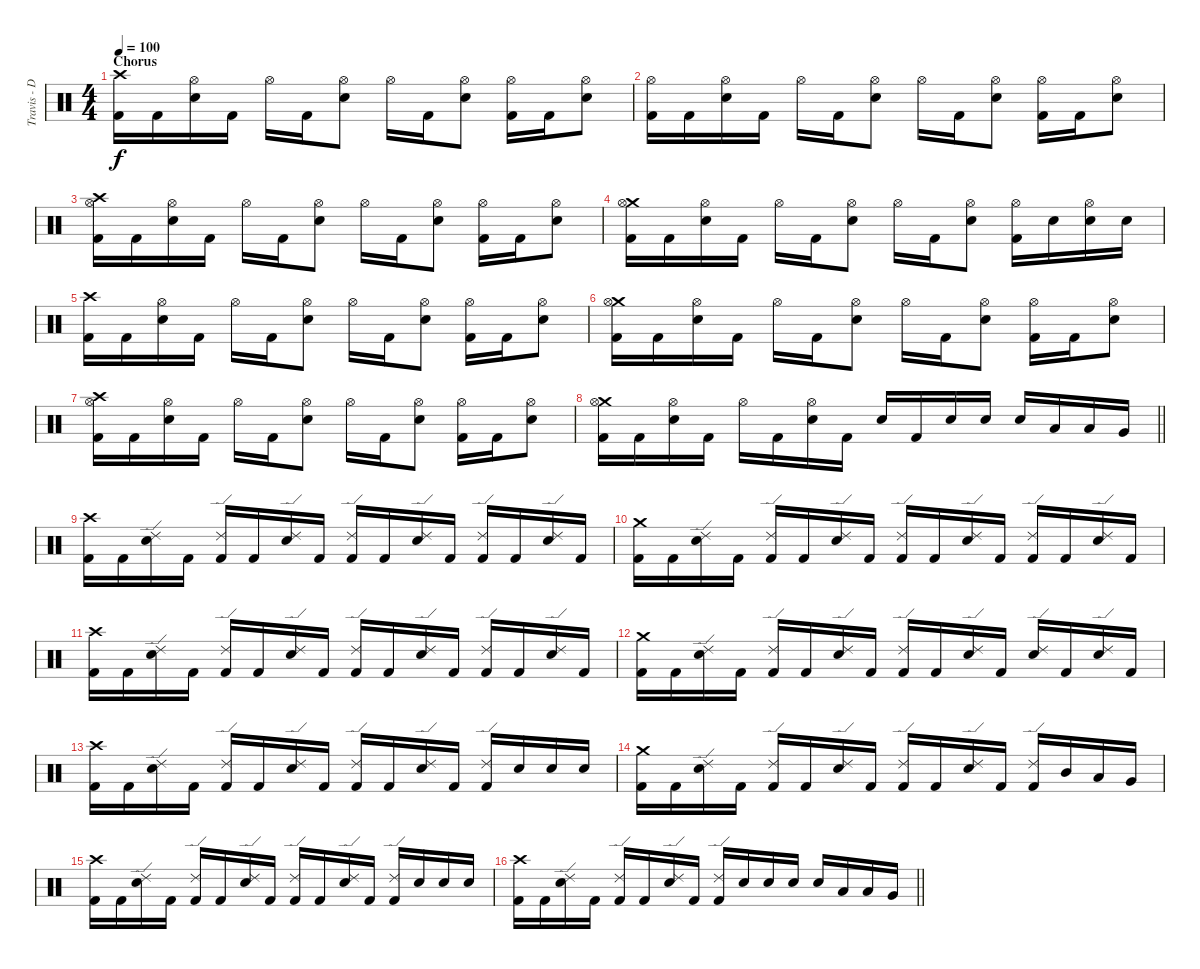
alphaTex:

\track ("Travis - Drums" "Travis - D") {instrument percussion}
\staff {score}
\articulation defaults
\ts (4 4)
\section ("" "Chorus")
\tempo 100
\clef neutral
\ks c
("Crash high (hit)" "Kick (hit) 2").16{dy f} "Kick (hit) 2".16 ("Hi-Hat (open)" "Electric Snare (hit)").16 "Kick (hit) 2".16 "Hi-Hat (open)".16 "Kick (hit) 2".16 ("Hi-Hat (open)" "Electric Snare (hit)").8 "Hi-Hat (open)".16 "Kick (hit) 2".16 ("Hi-Hat (open)" "Electric Snare (hit)").8 ("Hi-Hat (open)" "Kick (hit) 2").16 "Kick (hit) 2".16 ("Hi-Hat (open)" "Electric Snare (hit)").8 |
("Hi-Hat (open)" "Kick (hit) 2").16 "Kick (hit) 2".16 ("Hi-Hat (open)" "Electric Snare (hit)").16 "Kick (hit) 2".16 "Hi-Hat (open)".16 "Kick (hit) 2".16 ("Hi-Hat (open)" "Electric Snare (hit)").8 "Hi-Hat (open)".16 "Kick (hit) 2".16 ("Hi-Hat (open)" "Electric Snare (hit)").8 ("Hi-Hat (open)" "Kick (hit) 2").16 "Kick (hit) 2".16 ("Hi-Hat (open)" "Electric Snare (hit)").8 |
("Crash high (hit)" "Hi-Hat (open)" "Kick (hit) 2").16 "Kick (hit) 2".16 ("Hi-Hat (open)" "Electric Snare (hit)").16 "Kick (hit) 2".16 "Hi-Hat (open)".16 "Kick (hit) 2".16 ("Hi-Hat (open)" "Electric Snare (hit)").8 "Hi-Hat (open)".16 "Kick (hit) 2".16 ("Hi-Hat (open)" "Electric Snare (hit)").8 ("Hi-Hat (open)" "Kick (hit) 2").16 "Kick (hit) 2".16 ("Hi-Hat (open)" "Electric Snare (hit)").8 |
("Crash medium (hit)" "Hi-Hat (open)" "Kick (hit) 2").16 "Kick (hit) 2".16 ("Hi-Hat (open)" "Electric Snare (hit)").16 "Kick (hit) 2".16 "Hi-Hat (open)".16 "Kick (hit) 2".16 ("Hi-Hat (open)" "Electric Snare (hit)").8 "Hi-Hat (open)".16 "Kick (hit) 2".16 ("Hi-Hat (open)" "Electric Snare (hit)").8 ("Hi-Hat (open)" "Kick (hit) 2").16 "Electric Snare (hit)".16 ("Hi-Hat (open)" "Electric Snare (hit)").16 "Electric Snare (hit)".16 |
("Crash high (hit)" "Kick (hit) 2").16 "Kick (hit) 2".16 ("Hi-Hat (open)" "Electric Snare (hit)").16 "Kick (hit) 2".16 "Hi-Hat (open)".16 "Kick (hit) 2".16 ("Hi-Hat (open)" "Electric Snare (hit)").8 "Hi-Hat (open)".16 "Kick (hit) 2".16 ("Hi-Hat (open)" "Electric Snare (hit)").8 ("Hi-Hat (open)" "Kick (hit) 2").16 "Kick (hit) 2".16 ("Hi-Hat (open)" "Electric Snare (hit)").8 |
("Crash medium (hit)" "Hi-Hat (open)" "Kick (hit) 2").16 "Kick (hit) 2".16 ("Hi-Hat (open)" "Electric Snare (hit)").16 "Kick (hit) 2".16 "Hi-Hat (open)".16 "Kick (hit) 2".16 ("Hi-Hat (open)" "Electric Snare (hit)").8 "Hi-Hat (open)".16 "Kick (hit) 2".16 ("Hi-Hat (open)" "Electric Snare (hit)").8 ("Hi-Hat (open)" "Kick (hit) 2").16 "Kick (hit) 2".16 ("Hi-Hat (open)" "Electric Snare (hit)").8 |
("Crash high (hit)" "Hi-Hat (open)" "Kick (hit) 2").16 "Kick (hit) 2".16 ("Hi-Hat (open)" "Electric Snare (hit)").16 "Kick (hit) 2".16 "Hi-Hat (open)".16 "Kick (hit) 2".16 ("Hi-Hat (open)" "Electric Snare (hit)").8 "Hi-Hat (open)".16 "Kick (hit) 2".16 ("Hi-Hat (open)" "Electric Snare (hit)").8 ("Hi-Hat (open)" "Kick (hit) 2").16 "Kick (hit) 2".16 ("Hi-Hat (open)" "Electric Snare (hit)").8 |
\barLineRight lightlight
("Crash medium (hit)" "Hi-Hat (open)" "Kick (hit) 2").16 "Kick (hit) 2".16 ("Hi-Hat (open)" "Electric Snare (hit)").16 "Kick (hit) 2".16 "Hi-Hat (open)".16 "Kick (hit) 2".16 ("Hi-Hat (open)" "Electric Snare (hit)").16 "Kick (hit) 2".16 "Electric Snare (hit)".16 "Kick (hit) 2".16 "Electric Snare (hit)".16 "Electric Snare (hit)".16 "Electric Snare (hit)".16 "Low Tom (hit)".16 "Low Tom (hit)".16 "Very Low Tom (hit)".16 |
("Crash high (hit)" "Kick (hit) 2").16 "Kick (hit) 2".16 ("Ride (edge) 2" "Electric Snare (hit)").16 "Kick (hit) 2".16 ("Ride (edge) 2" "Kick (hit) 2").16 "Kick (hit) 2".16 ("Ride (edge) 2" "Electric Snare (hit)").16 "Kick (hit) 2".16 ("Ride (edge) 2" "Kick (hit) 2").16 "Kick (hit) 2".16 ("Ride (edge) 2" "Electric Snare (hit)").16 "Kick (hit) 2".16 ("Ride (edge) 2" "Kick (hit) 2").16 "Kick (hit) 2".16 ("Ride (edge) 2" "Electric Snare (hit)").16 "Kick (hit) 2".16 |
("Crash medium (hit)" "Kick (hit) 2").16 "Kick (hit) 2".16 ("Ride (edge) 2" "Electric Snare (hit)").16 "Kick (hit) 2".16 ("Ride (edge) 2" "Kick (hit) 2").16 "Kick (hit) 2".16 ("Ride (edge) 2" "Electric Snare (hit)").16 "Kick (hit) 2".16 ("Ride (edge) 2" "Kick (hit) 2").16 "Kick (hit) 2".16 ("Ride (edge) 2" "Electric Snare (hit)").16 "Kick (hit) 2".16 ("Ride (edge) 2" "Kick (hit) 2").16 "Kick (hit) 2".16 ("Ride (edge) 2" "Electric Snare (hit)").16 "Kick (hit) 2".16 |
("Crash high (hit)" "Kick (hit) 2").16 "Kick (hit) 2".16 ("Ride (edge) 2" "Electric Snare (hit)").16 "Kick (hit) 2".16 ("Ride (edge) 2" "Kick (hit) 2").16 "Kick (hit) 2".16 ("Ride (edge) 2" "Electric Snare (hit)").16 "Kick (hit) 2".16 ("Ride (edge) 2" "Kick (hit) 2").16 "Kick (hit) 2".16 ("Ride (edge) 2" "Electric Snare (hit)").16 "Kick (hit) 2".16 ("Ride (edge) 2" "Kick (hit) 2").16 "Kick (hit) 2".16 ("Ride (edge) 2" "Electric Snare (hit)").16 "Kick (hit) 2".16 |
("Crash medium (hit)" "Kick (hit) 2").16 "Kick (hit) 2".16 ("Ride (edge) 2" "Electric Snare (hit)").16 "Kick (hit) 2".16 ("Ride (edge) 2" "Kick (hit) 2").16 "Kick (hit) 2".16 ("Ride (edge) 2" "Electric Snare (hit)").16 "Kick (hit) 2".16 ("Ride (edge) 2" "Kick (hit) 2").16 "Kick (hit) 2".16 ("Ride (edge) 2" "Electric Snare (hit)").16 "Kick (hit) 2".16 ("Ride (edge) 2" "Electric Snare (hit)").16 "Kick (hit) 2".16 ("Ride (edge) 2" "Electric Snare (hit)").16 "Kick (hit) 2".16 |
("Crash high (hit)" "Kick (hit) 2").16 "Kick (hit) 2".16 ("Ride (edge) 2" "Electric Snare (hit)").16 "Kick (hit) 2".16 ("Ride (edge) 2" "Kick (hit) 2").16 "Kick (hit) 2".16 ("Ride (edge) 2" "Electric Snare (hit)").16 "Kick (hit) 2".16 ("Ride (edge) 2" "Kick (hit) 2").16 "Kick (hit) 2".16 ("Ride (edge) 2" "Electric Snare (hit)").16 "Kick (hit) 2".16 ("Ride (edge) 2" "Kick (hit) 2").16 "Electric Snare (hit)".16 "Electric Snare (hit)".16 "Electric Snare (hit)".16 |
("Crash medium (hit)" "Kick (hit) 2").16 "Kick (hit) 2".16 ("Ride (edge) 2" "Electric Snare (hit)").16 "Kick (hit) 2".16 ("Ride (edge) 2" "Kick (hit) 2").16 "Kick (hit) 2".16 ("Ride (edge) 2" "Electric Snare (hit)").16 "Kick (hit) 2".16 ("Ride (edge) 2" "Kick (hit) 2").16 "Kick (hit) 2".16 ("Ride (edge) 2" "Electric Snare (hit)").16 "Kick (hit) 2".16 ("Ride (edge) 2" "Kick (hit) 2").16 "Mid Tom (hit)".16 "Low Tom (hit)".16 "Very Low Tom (hit)".16 |
("Crash high (hit)" "Kick (hit) 2").16 "Kick (hit) 2".16 ("Ride (edge) 2" "Electric Snare (hit)").16 "Kick (hit) 2".16 ("Ride (edge) 2" "Kick (hit) 2").16 "Kick (hit) 2".16 ("Ride (edge) 2" "Electric Snare (hit)").16 "Kick (hit) 2".16 ("Ride (edge) 2" "Kick (hit) 2").16 "Kick (hit) 2".16 ("Ride (edge) 2" "Electric Snare (hit)").16 "Kick (hit) 2".16 ("Ride (edge) 2" "Kick (hit) 2").16 "Electric Snare (hit)".16 "Electric Snare (hit)".16 "Electric Snare (hit)".16 |
\barLineRight lightlight
("Crash high (hit)" "Kick (hit) 2").16 "Kick (hit) 2".16 ("Ride (edge) 2" "Electric Snare (hit)").16 "Kick (hit) 2".16 ("Ride (edge) 2" "Kick (hit) 2").16 "Kick (hit) 2".16 ("Ride (edge) 2" "Electric Snare (hit)").16 "Kick (hit) 2".16 ("Ride (edge) 2" "Kick (hit) 2").16 "Electric Snare (hit)".16 "Electric Snare (hit)".16 "Electric Snare (hit)".16 "Electric Snare (hit)".16 "Low Tom (hit)".16 "Low Tom (hit)".16 "Very Low Tom (hit)".16
